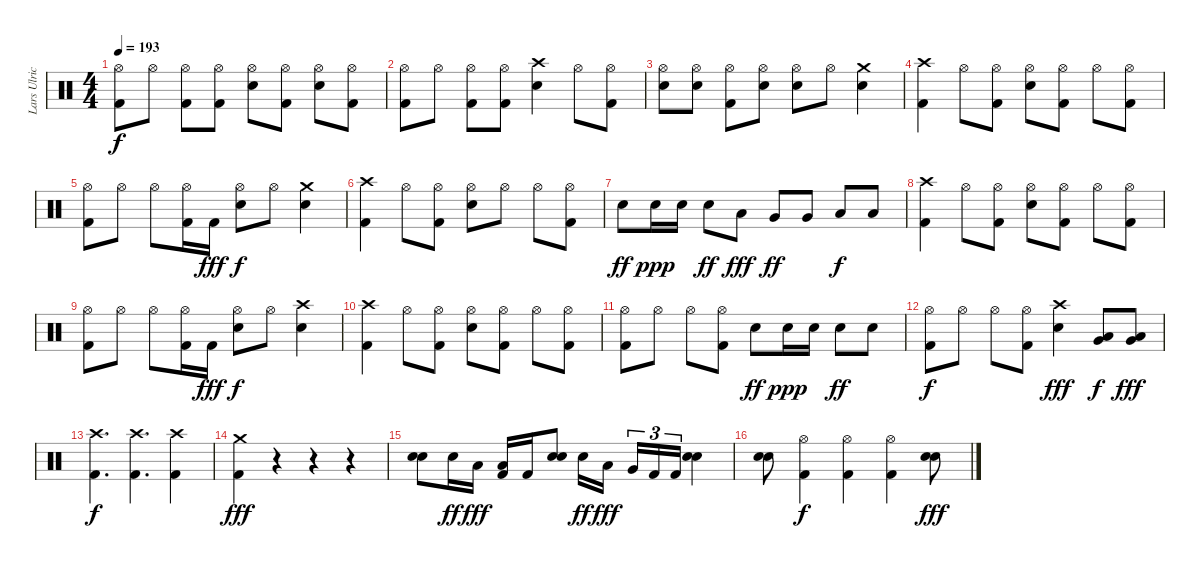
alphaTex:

\track ("Lars Ulrich - Drums" "Lars Ulric") {instrument percussion}
\staff {score}
\articulation defaults
\ts (4 4)
\tempo 193
\clef neutral
\ks c
("Hi-Hat (open)" "Kick (hit) 2").8{dy f} "Hi-Hat (open)".8 ("Hi-Hat (open)" "Kick (hit) 2").8 ("Hi-Hat (open)" "Kick (hit) 2").8 ("Hi-Hat (open)" "Snare (hit) 2").8 ("Hi-Hat (open)" "Kick (hit) 2").8 ("Hi-Hat (open)" "Snare (hit) 2").8 ("Hi-Hat (open)" "Kick (hit) 2").8 |
("Hi-Hat (open)" "Kick (hit) 2").8 "Hi-Hat (open)".8 ("Hi-Hat (open)" "Kick (hit) 2").8 ("Hi-Hat (open)" "Kick (hit) 2").8 ("Crash high (hit)" "Snare (hit) 2").4 "Hi-Hat (open)".8 ("Hi-Hat (open)" "Kick (hit) 2").8 |
("Hi-Hat (open)" "Snare (hit) 2").8 ("Hi-Hat (open)" "Snare (hit) 2").8 ("Hi-Hat (open)" "Kick (hit) 2").8 ("Hi-Hat (open)" "Snare (hit) 2").8 ("Hi-Hat (open)" "Snare (hit) 2").8 "Hi-Hat (open)".8 ("Crash medium (hit)" "Snare (hit) 2").4 |
("Crash high (hit)" "Kick (hit) 2").4 "Hi-Hat (open)".8 ("Hi-Hat (open)" "Kick (hit) 2").8 ("Hi-Hat (open)" "Snare (hit) 2").8 ("Hi-Hat (open)" "Kick (hit) 2").8 "Hi-Hat (open)".8 ("Hi-Hat (open)" "Kick (hit) 2").8 |
("Hi-Hat (open)" "Kick (hit) 2").8 "Hi-Hat (open)".8 "Hi-Hat (open)".8 ("Hi-Hat (open)" "Kick (hit) 2").16 "Kick (hit) 2".16{dy fff} ("Hi-Hat (open)" "Snare (hit) 2").8{dy f} "Hi-Hat (open)".8 ("Crash medium (hit)" "Snare (hit) 2").4 |
("Crash high (hit)" "Kick (hit) 2").4 "Hi-Hat (open)".8 ("Hi-Hat (open)" "Kick (hit) 2").8 ("Hi-Hat (open)" "Snare (hit) 2").8 "Hi-Hat (open)".8 "Hi-Hat (open)".8 ("Hi-Hat (open)" "Kick (hit) 2").8 |
"Snare (hit) 2".8{dy ff} "Snare (hit) 2".16{dy ppp} "Snare (hit) 2".16 "Snare (hit) 2".8{dy ff} "Low Tom (hit)".8{dy fff} "Very Low Tom (hit)".8{dy ff} "Very Low Tom (hit)".8 "Low Floor Tom (hit)".8{dy f} "Low Floor Tom (hit)".8 |
("Crash high (hit)" "Kick (hit) 2").4 "Hi-Hat (open)".8 ("Hi-Hat (open)" "Kick (hit) 2").8 ("Hi-Hat (open)" "Snare (hit) 2").8 ("Hi-Hat (open)" "Kick (hit) 2").8 "Hi-Hat (open)".8 ("Hi-Hat (open)" "Kick (hit) 2").8 |
("Hi-Hat (open)" "Kick (hit) 2").8 "Hi-Hat (open)".8 "Hi-Hat (open)".8 ("Hi-Hat (open)" "Kick (hit) 2").16 "Kick (hit) 2".16{dy fff} ("Hi-Hat (open)" "Snare (hit) 2").8{dy f} "Hi-Hat (open)".8 ("Crash high (hit)" "Snare (hit) 2").4 |
("Crash high (hit)" "Kick (hit) 2").4 "Hi-Hat (open)".8 ("Hi-Hat (open)" "Kick (hit) 2").8 ("Hi-Hat (open)" "Snare (hit) 2").8 ("Hi-Hat (open)" "Kick (hit) 2").8 "Hi-Hat (open)".8 ("Hi-Hat (open)" "Kick (hit) 2").8 |
("Hi-Hat (open)" "Kick (hit) 2").8 "Hi-Hat (open)".8 "Hi-Hat (open)".8 ("Hi-Hat (open)" "Kick (hit) 2").8 "Snare (hit) 2".8{dy ff} "Snare (hit) 2".16{dy ppp} "Snare (hit) 2".16 "Snare (hit) 2".8{dy ff} "Snare (hit) 2".8 |
("Hi-Hat (open)" "Kick (hit) 2").8{dy f} "Hi-Hat (open)".8 "Hi-Hat (open)".8 ("Hi-Hat (open)" "Kick (hit) 2").8 ("Crash high (hit)" "Snare (hit) 2").4{dy fff} ("Low Tom (hit)" "Very Low Tom (hit)").8{dy f} ("Low Tom (hit)" "Very Low Tom (hit)").8{dy fff} |
("Crash high (hit)" "Kick (hit) 2").4{d dy f} ("Crash high (hit)" "Kick (hit) 2").4{d} ("Crash high (hit)" "Kick (hit) 2").4 |
("Crash medium (hit)" "Kick (hit) 2").4{dy fff} r.4 r.4 r.4 |
("Snare (hit) 2" "Snare (hit) 2").8 "Snare (hit) 2".16{dy ff} "Low Tom (hit)".16{dy fff} ("Low Tom (hit)" "Kick (hit) 2").16 "Kick (hit) 2".16 ("Snare (hit) 2" "Snare (hit) 2").8 "Snare (hit) 2".16{dy ff} "Low Tom (hit)".16{dy fff} "Very Low Tom (hit)".16{tu (3 2)} "Kick (hit) 2".16{tu (3 2)} "Kick (hit) 2".16{tu (3 2)} ("Snare (hit) 2" "Snare (hit) 2").4 |
("Snare (hit) 2" "Snare (hit) 2").8 ("Hi-Hat (open)" "Kick (hit) 2").4{dy f} ("Hi-Hat (open)" "Kick (hit) 2").4 ("Hi-Hat (open)" "Kick (hit) 2").4 ("Snare (hit) 2" "Snare (hit) 2").8{dy fff}
